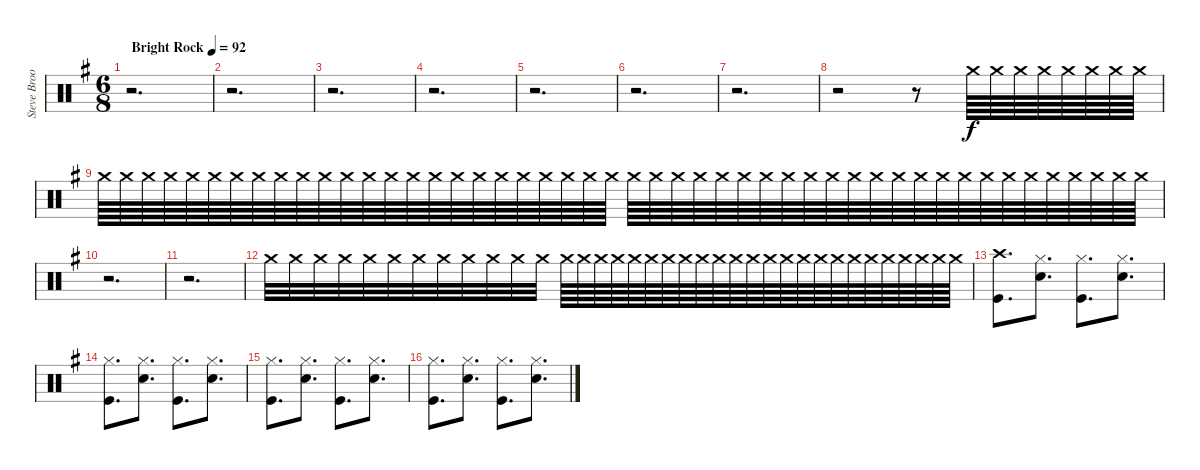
\track ("Steve Brookins Drums" "Steve Broo") {instrument percussion}
\staff {score}
\articulation defaults
\ts (6 8)
\tempo (92 "Bright Rock")
\clef neutral
\ks g
r.2{d dy f} |
r.2{d} |
r.2{d} |
r.2{d} |
r.2{d} |
r.2{d} |
r.2{d} |
r.2 r.8 "Crash medium (hit)".64{volume 16} "Crash medium (hit)".64 "Crash medium (hit)".64 "Crash medium (hit)".64 "Crash medium (hit)".64 "Crash medium (hit)".64 "Crash medium (hit)".64 "Crash medium (hit)".64 |
"Crash medium (hit)".64 "Crash medium (hit)".64 "Crash medium (hit)".64 "Crash medium (hit)".64 "Crash medium (hit)".64 "Crash medium (hit)".64 "Crash medium (hit)".64 "Crash medium (hit)".64 "Crash medium (hit)".64 "Crash medium (hit)".64 "Crash medium (hit)".64 "Crash medium (hit)".64 "Crash medium (hit)".64 "Crash medium (hit)".64 "Crash medium (hit)".64 "Crash medium (hit)".64 "Crash medium (hit)".64 "Crash medium (hit)".64 "Crash medium (hit)".64 "Crash medium (hit)".64 "Crash medium (hit)".64 "Crash medium (hit)".64 "Crash medium (hit)".64 "Crash medium (hit)".64 "Crash medium (hit)".64 "Crash medium (hit)".64 "Crash medium (hit)".64 "Crash medium (hit)".64 "Crash medium (hit)".64 "Crash medium (hit)".64 "Crash medium (hit)".64 "Crash medium (hit)".64 "Crash medium (hit)".64 "Crash medium (hit)".64 "Crash medium (hit)".64 "Crash medium (hit)".64 "Crash medium (hit)".64 "Crash medium (hit)".64 "Crash medium (hit)".64 "Crash medium (hit)".64 "Crash medium (hit)".64 "Crash medium (hit)".64 "Crash medium (hit)".64 "Crash medium (hit)".64 "Crash medium (hit)".64 "Crash medium (hit)".64 "Crash medium (hit)".64 "Crash medium (hit)".64 |
r.2{d} |
r.2{d volume 6} |
"Crash medium (hit)".32{volume 16} "Crash medium (hit)".32 "Crash medium (hit)".32 "Crash medium (hit)".32 "Crash medium (hit)".32 "Crash medium (hit)".32 "Crash medium (hit)".32 "Crash medium (hit)".32 "Crash medium (hit)".32 "Crash medium (hit)".32 "Crash medium (hit)".32 "Crash medium (hit)".32 "Crash medium (hit)".64 "Crash medium (hit)".64 "Crash medium (hit)".64 "Crash medium (hit)".64 "Crash medium (hit)".64 "Crash medium (hit)".64 "Crash medium (hit)".64 "Crash medium (hit)".64 "Crash medium (hit)".64 "Crash medium (hit)".64 "Crash medium (hit)".64 "Crash medium (hit)".64 "Crash medium (hit)".64 "Crash medium (hit)".64 "Crash medium (hit)".64 "Crash medium (hit)".64 "Crash medium (hit)".64 "Crash medium (hit)".64 "Crash medium (hit)".64 "Crash medium (hit)".64 "Crash medium (hit)".64 "Crash medium (hit)".64 "Crash medium (hit)".64 "Crash medium (hit)".64 |
("Crash high (hit)" "Kick (hit)").8{d volume 13} ("Hi-Hat (closed)" "Snare (hit) 2").8{d} ("Hi-Hat (closed)" "Kick (hit)").8{d} ("Hi-Hat (closed)" "Snare (hit) 2").8{d} |
("Hi-Hat (closed)" "Kick (hit)").8{d} ("Hi-Hat (closed)" "Snare (hit) 2").8{d} ("Hi-Hat (closed)" "Kick (hit)").8{d} ("Hi-Hat (closed)" "Snare (hit) 2").8{d} |
("Hi-Hat (closed)" "Kick (hit)").8{d} ("Hi-Hat (closed)" "Snare (hit) 2").8{d} ("Hi-Hat (closed)" "Kick (hit)").8{d} ("Hi-Hat (closed)" "Snare (hit) 2").8{d} |
("Hi-Hat (closed)" "Kick (hit)").8{d} ("Hi-Hat (closed)" "Snare (hit) 2").8{d} ("Hi-Hat (closed)" "Kick (hit)").8{d} ("Hi-Hat (closed)" "Snare (hit) 2").8{d}
